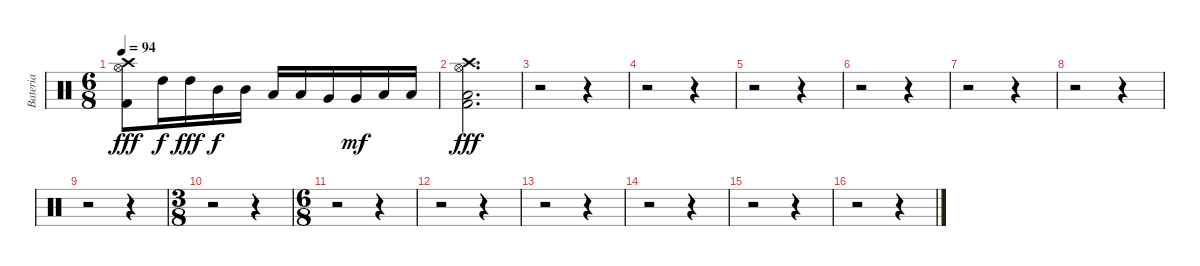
\track ("Bateria" "Bateria") {instrument percussion}
\staff {score}
\articulation defaults
\ts (6 8)
\tempo 94
\clef neutral
\ks c
("Crash high (hit)" "Hi-Hat (open)" "Kick (hit) 2").8{dy fff} "High Tom (hit)".16{dy f} "High Tom (hit)".16{dy fff} "Mid Tom (hit)".16{dy f} "Mid Tom (hit)".16 "Low Tom (hit)".16 "Low Tom (hit)".16 "Very Low Tom (hit)".16 "Very Low Tom (hit)".16{dy mf} "Low Floor Tom (hit)".16 "Low Floor Tom (hit)".16 |
("Crash high (hit)" "Hi-Hat (open)" "Low Floor Tom (hit)" "Kick (hit) 2").2{d dy fff} |
r.2 r.4 |
r.2 r.4 |
r.2 r.4 |
r.2 r.4 |
r.2 r.4 |
r.2 r.4 |
r.2 r.4 |
\ts (3 8)
r.2 r.4 |
\ts (6 8)
r.2 r.4 |
r.2 r.4 |
r.2 r.4 |
r.2 r.4 |
r.2 r.4 |
r.2 r.4
